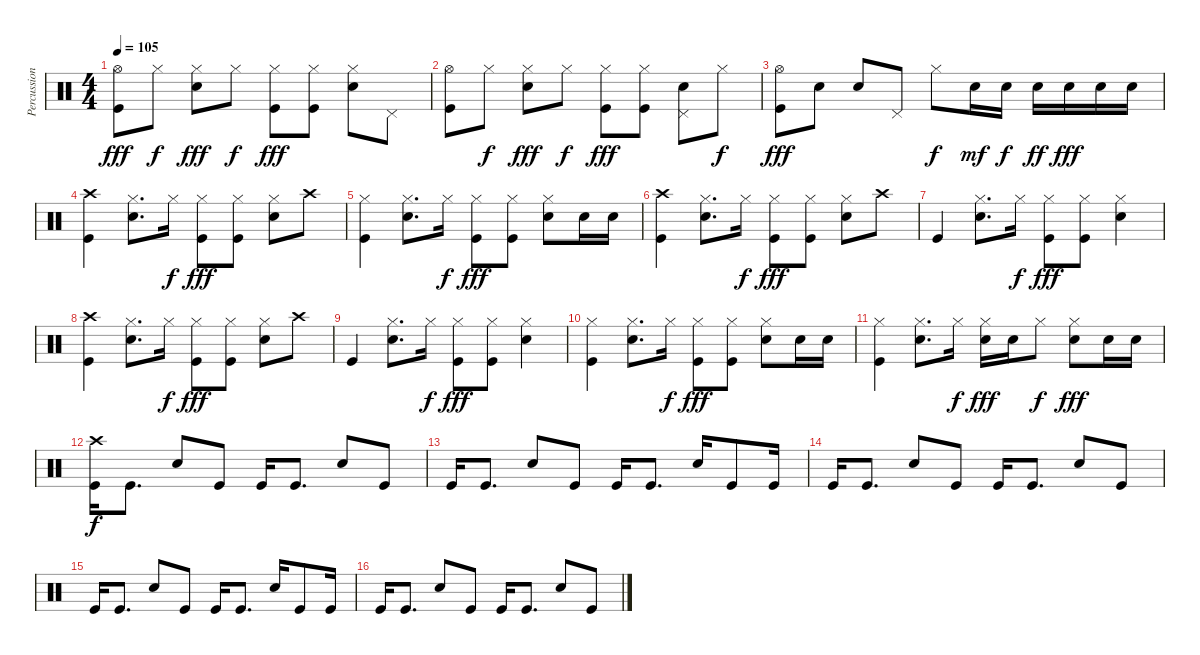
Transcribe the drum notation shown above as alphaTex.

\track ("Percussion" "Percussion") {instrument percussion}
\staff {score}
\articulation defaults
\ts (4 4)
\tempo 105
\clef neutral
\ks c
("Hi-Hat (open)" "Kick (hit)").8{dy fff} "Hi-Hat (closed)".8{dy f} ("Hi-Hat (closed)" "Electric Snare (hit)").8{dy fff} "Hi-Hat (closed)".8{dy f} ("Hi-Hat (closed)" "Kick (hit)").8{dy fff} ("Hi-Hat (closed)" "Kick (hit)").8 ("Hi-Hat (closed)" "Electric Snare (hit)").8 "Pedal Hi-Hat (hit)".8 |
("Hi-Hat (open)" "Kick (hit)").8 "Hi-Hat (closed)".8{dy f} ("Hi-Hat (closed)" "Electric Snare (hit)").8{dy fff} "Hi-Hat (closed)".8{dy f} ("Hi-Hat (closed)" "Kick (hit)").8{dy fff} ("Hi-Hat (closed)" "Kick (hit)").8 ("Pedal Hi-Hat (hit)" "Electric Snare (hit)").8 "Hi-Hat (closed)".8{dy f} |
("Hi-Hat (open)" "Kick (hit)").8{dy fff} "Electric Snare (hit)".8 "Electric Snare (hit)".8 "Pedal Hi-Hat (hit)".8 "Hi-Hat (closed)".8{dy f} "Electric Snare (hit)".16{dy mf} "Electric Snare (hit)".16{dy f} "Electric Snare (hit)".16{dy ff} "Electric Snare (hit)".16{dy fff} "Electric Snare (hit)".16 "Electric Snare (hit)".16 |
("Crash high (hit)" "Kick (hit)").4 ("Hi-Hat (closed)" "Electric Snare (hit)").8{d} "Hi-Hat (closed)".16{dy f} ("Hi-Hat (closed)" "Kick (hit)").8{dy fff} ("Hi-Hat (closed)" "Kick (hit)").8 ("Hi-Hat (closed)" "Electric Snare (hit)").8 "Crash high (hit)".8 |
("Hi-Hat (closed)" "Kick (hit)").4 ("Hi-Hat (closed)" "Electric Snare (hit)").8{d} "Hi-Hat (closed)".16{dy f} ("Hi-Hat (closed)" "Kick (hit)").8{dy fff} ("Hi-Hat (closed)" "Kick (hit)").8 ("Hi-Hat (closed)" "Electric Snare (hit)").8 "Electric Snare (hit)".16 "Electric Snare (hit)".16 |
("Crash high (hit)" "Kick (hit)").4 ("Hi-Hat (closed)" "Electric Snare (hit)").8{d} "Hi-Hat (closed)".16{dy f} ("Hi-Hat (closed)" "Kick (hit)").8{dy fff} ("Hi-Hat (closed)" "Kick (hit)").8 ("Hi-Hat (closed)" "Electric Snare (hit)").8 "Crash high (hit)".8 |
"Kick (hit)".4 ("Hi-Hat (closed)" "Electric Snare (hit)").8{d} "Hi-Hat (closed)".16{dy f} ("Hi-Hat (closed)" "Kick (hit)").8{dy fff} ("Hi-Hat (closed)" "Kick (hit)").8 ("Hi-Hat (closed)" "Electric Snare (hit)").4 |
("Crash high (hit)" "Kick (hit)").4 ("Hi-Hat (closed)" "Electric Snare (hit)").8{d} "Hi-Hat (closed)".16{dy f} ("Hi-Hat (closed)" "Kick (hit)").8{dy fff} ("Hi-Hat (closed)" "Kick (hit)").8 ("Hi-Hat (closed)" "Electric Snare (hit)").8 "Crash high (hit)".8 |
"Kick (hit)".4 ("Hi-Hat (closed)" "Electric Snare (hit)").8{d} "Hi-Hat (closed)".16{dy f} ("Hi-Hat (closed)" "Kick (hit)").8{dy fff} ("Hi-Hat (closed)" "Kick (hit)").8 ("Hi-Hat (closed)" "Electric Snare (hit)").4 |
("Hi-Hat (closed)" "Kick (hit)").4 ("Hi-Hat (closed)" "Electric Snare (hit)").8{d} "Hi-Hat (closed)".16{dy f} ("Hi-Hat (closed)" "Kick (hit)").8{dy fff} ("Hi-Hat (closed)" "Kick (hit)").8 ("Hi-Hat (closed)" "Electric Snare (hit)").8 "Electric Snare (hit)".16 "Electric Snare (hit)".16 |
("Hi-Hat (closed)" "Kick (hit)").4 ("Hi-Hat (closed)" "Electric Snare (hit)").8{d} "Hi-Hat (closed)".16{dy f} ("Hi-Hat (closed)" "Electric Snare (hit)").16{dy fff} "Electric Snare (hit)".16 "Hi-Hat (closed)".8{dy f} ("Hi-Hat (closed)" "Electric Snare (hit)").8{dy fff} "Electric Snare (hit)".16 "Electric Snare (hit)".16 |
("Crash high (hit)" "Kick (hit)").16{dy f} "Kick (hit)".8{d} "Electric Snare (hit)".8 "Kick (hit)".8 "Kick (hit)".16 "Kick (hit)".8{d} "Electric Snare (hit)".8 "Kick (hit)".8 |
"Kick (hit)".16 "Kick (hit)".8{d} "Electric Snare (hit)".8 "Kick (hit)".8 "Kick (hit)".16 "Kick (hit)".8{d} "Electric Snare (hit)".16 "Kick (hit)".8 "Kick (hit)".16 |
"Kick (hit)".16 "Kick (hit)".8{d} "Electric Snare (hit)".8 "Kick (hit)".8 "Kick (hit)".16 "Kick (hit)".8{d} "Electric Snare (hit)".8 "Kick (hit)".8 |
"Kick (hit)".16 "Kick (hit)".8{d} "Electric Snare (hit)".8 "Kick (hit)".8 "Kick (hit)".16 "Kick (hit)".8{d} "Electric Snare (hit)".16 "Kick (hit)".8 "Kick (hit)".16 |
"Kick (hit)".16 "Kick (hit)".8{d} "Electric Snare (hit)".8 "Kick (hit)".8 "Kick (hit)".16 "Kick (hit)".8{d} "Electric Snare (hit)".8 "Kick (hit)".8
